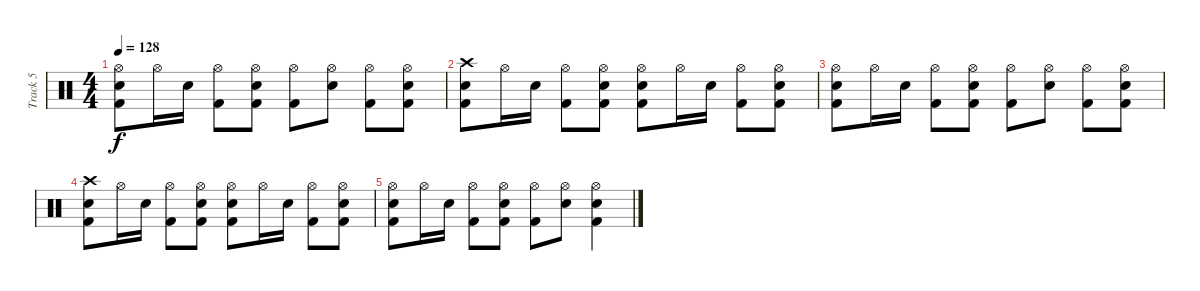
\track ("Track 5" "Track 5") {instrument percussion}
\staff {score}
\articulation defaults
\ts (4 4)
\tempo 128
\clef neutral
\ks c
("Hi-Hat (open)" "Electric Snare (hit)" "Kick (hit) 2").8{dy f} "Hi-Hat (open)".16 "Electric Snare (hit)".16 ("Hi-Hat (open)" "Kick (hit) 2").8 ("Hi-Hat (open)" "Electric Snare (hit)" "Kick (hit) 2").8 ("Hi-Hat (open)" "Kick (hit) 2").8 ("Hi-Hat (open)" "Electric Snare (hit)").8 ("Hi-Hat (open)" "Kick (hit) 2").8 ("Hi-Hat (open)" "Electric Snare (hit)" "Kick (hit) 2").8 |
("Crash high (hit)" "Electric Snare (hit)" "Kick (hit) 2").8 "Hi-Hat (open)".16 "Electric Snare (hit)".16 ("Hi-Hat (open)" "Kick (hit) 2").8 ("Hi-Hat (open)" "Electric Snare (hit)" "Kick (hit) 2").8 ("Hi-Hat (open)" "Electric Snare (hit)" "Kick (hit) 2").8 "Hi-Hat (open)".16 "Electric Snare (hit)".16 ("Hi-Hat (open)" "Kick (hit) 2").8 ("Hi-Hat (open)" "Electric Snare (hit)" "Kick (hit) 2").8 |
("Hi-Hat (open)" "Electric Snare (hit)" "Kick (hit) 2").8 "Hi-Hat (open)".16 "Electric Snare (hit)".16 ("Hi-Hat (open)" "Kick (hit) 2").8 ("Hi-Hat (open)" "Electric Snare (hit)" "Kick (hit) 2").8 ("Hi-Hat (open)" "Kick (hit) 2").8 ("Hi-Hat (open)" "Electric Snare (hit)").8 ("Hi-Hat (open)" "Kick (hit) 2").8 ("Hi-Hat (open)" "Electric Snare (hit)" "Kick (hit) 2").8 |
("Crash high (hit)" "Electric Snare (hit)" "Kick (hit) 2").8 "Hi-Hat (open)".16 "Electric Snare (hit)".16 ("Hi-Hat (open)" "Kick (hit) 2").8 ("Hi-Hat (open)" "Electric Snare (hit)" "Kick (hit) 2").8 ("Hi-Hat (open)" "Electric Snare (hit)" "Kick (hit) 2").8 "Hi-Hat (open)".16 "Electric Snare (hit)".16 ("Hi-Hat (open)" "Kick (hit) 2").8 ("Hi-Hat (open)" "Electric Snare (hit)" "Kick (hit) 2").8 |
("Hi-Hat (open)" "Electric Snare (hit)" "Kick (hit) 2").8 "Hi-Hat (open)".16 "Electric Snare (hit)".16 ("Hi-Hat (open)" "Kick (hit) 2").8 ("Hi-Hat (open)" "Electric Snare (hit)" "Kick (hit) 2").8 ("Hi-Hat (open)" "Kick (hit) 2").8 ("Hi-Hat (open)" "Electric Snare (hit)").8 ("Hi-Hat (open)" "Electric Snare (hit)" "Kick (hit) 2").4
